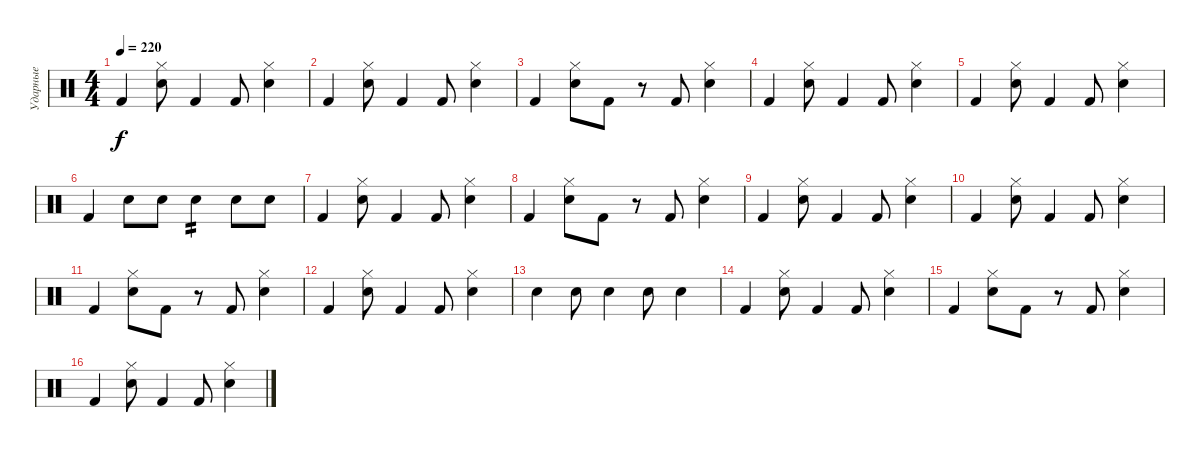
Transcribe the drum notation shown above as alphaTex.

\track ("Ударные" "Ударные") {instrument percussion}
\staff {score}
\articulation defaults
\ts (4 4)
\tempo 220
\clef neutral
\ks c "Kick (hit) 2".4{dy f}
("Hi-Hat (closed)" "Snare (hit) 2").8 "Kick (hit) 2".4 "Kick (hit) 2".8 ("Hi-Hat (closed)" "Snare (hit) 2").4 |
"Kick (hit) 2".4 ("Hi-Hat (closed)" "Snare (hit) 2").8 "Kick (hit) 2".4 "Kick (hit) 2".8 ("Hi-Hat (closed)" "Snare (hit) 2").4 |
"Kick (hit) 2".4 ("Hi-Hat (closed)" "Snare (hit) 2").8 "Kick (hit) 2".8 r.8 "Kick (hit) 2".8 ("Hi-Hat (closed)" "Snare (hit) 2").4 |
"Kick (hit) 2".4 ("Hi-Hat (closed)" "Snare (hit) 2").8 "Kick (hit) 2".4 "Kick (hit) 2".8 ("Hi-Hat (closed)" "Snare (hit) 2").4 |
"Kick (hit) 2".4 ("Hi-Hat (closed)" "Snare (hit) 2").8 "Kick (hit) 2".4 "Kick (hit) 2".8 ("Hi-Hat (closed)" "Snare (hit) 2").4 |
"Kick (hit) 2".4 "Snare (hit) 2".8 "Snare (hit) 2".8 "Snare (hit) 2".4{tp 2} "Snare (hit) 2".8 "Snare (hit) 2".8 |
"Kick (hit) 2".4 ("Hi-Hat (closed)" "Snare (hit) 2").8 "Kick (hit) 2".4 "Kick (hit) 2".8 ("Hi-Hat (closed)" "Snare (hit) 2").4 |
"Kick (hit) 2".4 ("Hi-Hat (closed)" "Snare (hit) 2").8 "Kick (hit) 2".8 r.8 "Kick (hit) 2".8 ("Hi-Hat (closed)" "Snare (hit) 2").4 |
"Kick (hit) 2".4 ("Hi-Hat (closed)" "Snare (hit) 2").8 "Kick (hit) 2".4 "Kick (hit) 2".8 ("Hi-Hat (closed)" "Snare (hit) 2").4 |
"Kick (hit) 2".4 ("Hi-Hat (closed)" "Snare (hit) 2").8 "Kick (hit) 2".4 "Kick (hit) 2".8 ("Hi-Hat (closed)" "Snare (hit) 2").4 |
"Kick (hit) 2".4 ("Hi-Hat (closed)" "Snare (hit) 2").8 "Kick (hit) 2".8 r.8 "Kick (hit) 2".8 ("Hi-Hat (closed)" "Snare (hit) 2").4 |
"Kick (hit) 2".4 ("Hi-Hat (closed)" "Snare (hit) 2").8 "Kick (hit) 2".4 "Kick (hit) 2".8 ("Hi-Hat (closed)" "Snare (hit) 2").4 |
"Snare (hit) 2".4 "Snare (hit) 2".8 "Snare (hit) 2".4 "Snare (hit) 2".8 "Snare (hit) 2".4 |
"Kick (hit) 2".4 ("Hi-Hat (closed)" "Snare (hit) 2").8 "Kick (hit) 2".4 "Kick (hit) 2".8 ("Hi-Hat (closed)" "Snare (hit) 2").4 |
"Kick (hit) 2".4 ("Hi-Hat (closed)" "Snare (hit) 2").8 "Kick (hit) 2".8 r.8 "Kick (hit) 2".8 ("Hi-Hat (closed)" "Snare (hit) 2").4 |
"Kick (hit) 2".4 ("Hi-Hat (closed)" "Snare (hit) 2").8 "Kick (hit) 2".4 "Kick (hit) 2".8 ("Hi-Hat (closed)" "Snare (hit) 2").4
